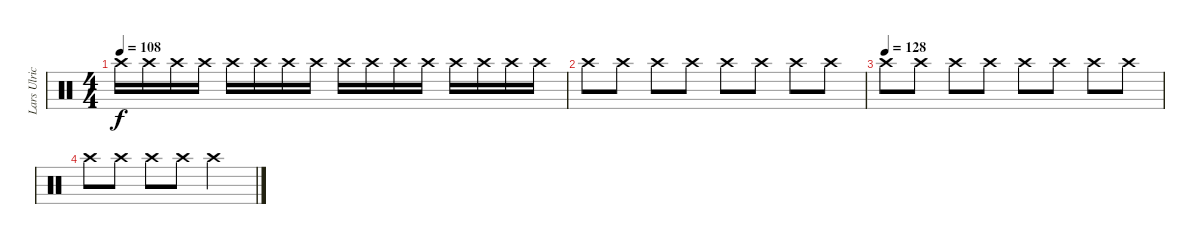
\track ("Lars Ulrich" "Lars Ulric") {instrument percussion}
\staff {score}
\articulation defaults
\ts (4 4)
\tempo 108
\clef neutral
\ks c "Crash high (hit)".16{dy f} "Crash high (hit)".16 "Crash high (hit)".16 "Crash high (hit)".16 "Crash high (hit)".16 "Crash high (hit)".16 "Crash high (hit)".16 "Crash high (hit)".16 "Crash high (hit)".16 "Crash high (hit)".16 "Crash high (hit)".16 "Crash high (hit)".16 "Crash high (hit)".16 "Crash high (hit)".16 "Crash high (hit)".16 "Crash high (hit)".16
|
"Crash high (hit)".8 "Crash high (hit)".8 "Crash high (hit)".8 "Crash high (hit)".8 "Crash high (hit)".8 "Crash high (hit)".8 "Crash high (hit)".8 "Crash high (hit)".8 |
\tempo (128)
"Crash high (hit)".8 "Crash high (hit)".8 "Crash high (hit)".8 "Crash high (hit)".8 "Crash high (hit)".8 "Crash high (hit)".8 "Crash high (hit)".8 "Crash high (hit)".8 |
"Crash high (hit)".8 "Crash high (hit)".8 "Crash high (hit)".8 "Crash high (hit)".8 "Crash high (hit)".2
